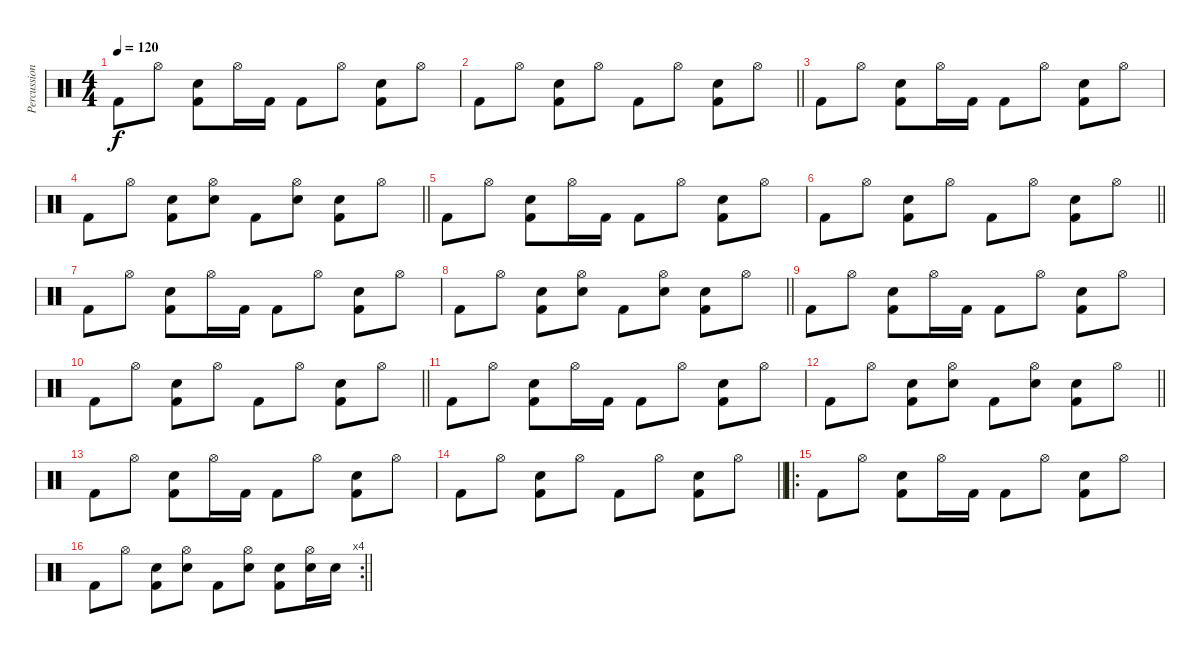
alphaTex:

\track ("Percussion" "Percussion") {instrument percussion}
\staff {score}
\articulation defaults
\ts (4 4)
\tempo 120
\clef neutral
\ks c "Kick (hit) 2".8{dy f} "Hi-Hat (open)".8
("Electric Snare (hit)" "Kick (hit) 2").8 "Hi-Hat (open)".16 "Kick (hit) 2".16 "Kick (hit) 2".8 "Hi-Hat (open)".8 ("Electric Snare (hit)" "Kick (hit) 2").8 "Hi-Hat (open)".8 |
\barLineRight lightlight "Kick (hit) 2".8 "Hi-Hat (open)".8
("Electric Snare (hit)" "Kick (hit) 2").8 "Hi-Hat (open)".8 "Kick (hit) 2".8 "Hi-Hat (open)".8 ("Electric Snare (hit)" "Kick (hit) 2").8 "Hi-Hat (open)".8 |
"Kick (hit) 2".8 "Hi-Hat (open)".8 ("Electric Snare (hit)" "Kick (hit) 2").8 "Hi-Hat (open)".16 "Kick (hit) 2".16 "Kick (hit) 2".8 "Hi-Hat (open)".8 ("Electric Snare (hit)" "Kick (hit) 2").8 "Hi-Hat (open)".8 |
\barLineRight lightlight "Kick (hit) 2".8 "Hi-Hat (open)".8
("Electric Snare (hit)" "Kick (hit) 2").8 ("Hi-Hat (open)" "Electric Snare (hit)").8 "Kick (hit) 2".8 ("Hi-Hat (open)" "Electric Snare (hit)").8 ("Electric Snare (hit)" "Kick (hit) 2").8 "Hi-Hat (open)".8 |
"Kick (hit) 2".8 "Hi-Hat (open)".8 ("Electric Snare (hit)" "Kick (hit) 2").8 "Hi-Hat (open)".16 "Kick (hit) 2".16 "Kick (hit) 2".8 "Hi-Hat (open)".8 ("Electric Snare (hit)" "Kick (hit) 2").8 "Hi-Hat (open)".8 |
\barLineRight lightlight "Kick (hit) 2".8 "Hi-Hat (open)".8
("Electric Snare (hit)" "Kick (hit) 2").8 "Hi-Hat (open)".8 "Kick (hit) 2".8 "Hi-Hat (open)".8 ("Electric Snare (hit)" "Kick (hit) 2").8 "Hi-Hat (open)".8 |
"Kick (hit) 2".8 "Hi-Hat (open)".8 ("Electric Snare (hit)" "Kick (hit) 2").8 "Hi-Hat (open)".16 "Kick (hit) 2".16 "Kick (hit) 2".8 "Hi-Hat (open)".8 ("Electric Snare (hit)" "Kick (hit) 2").8 "Hi-Hat (open)".8 |
\barLineRight lightlight "Kick (hit) 2".8 "Hi-Hat (open)".8
("Electric Snare (hit)" "Kick (hit) 2").8 ("Hi-Hat (open)" "Electric Snare (hit)").8 "Kick (hit) 2".8 ("Hi-Hat (open)" "Electric Snare (hit)").8 ("Electric Snare (hit)" "Kick (hit) 2").8 "Hi-Hat (open)".8 |
"Kick (hit) 2".8 "Hi-Hat (open)".8 ("Electric Snare (hit)" "Kick (hit) 2").8 "Hi-Hat (open)".16 "Kick (hit) 2".16 "Kick (hit) 2".8 "Hi-Hat (open)".8 ("Electric Snare (hit)" "Kick (hit) 2").8 "Hi-Hat (open)".8 |
\barLineRight lightlight "Kick (hit) 2".8 "Hi-Hat (open)".8
("Electric Snare (hit)" "Kick (hit) 2").8 "Hi-Hat (open)".8 "Kick (hit) 2".8 "Hi-Hat (open)".8 ("Electric Snare (hit)" "Kick (hit) 2").8 "Hi-Hat (open)".8 |
"Kick (hit) 2".8 "Hi-Hat (open)".8 ("Electric Snare (hit)" "Kick (hit) 2").8 "Hi-Hat (open)".16 "Kick (hit) 2".16 "Kick (hit) 2".8 "Hi-Hat (open)".8 ("Electric Snare (hit)" "Kick (hit) 2").8 "Hi-Hat (open)".8 |
\barLineRight lightlight "Kick (hit) 2".8 "Hi-Hat (open)".8
("Electric Snare (hit)" "Kick (hit) 2").8 ("Hi-Hat (open)" "Electric Snare (hit)").8 "Kick (hit) 2".8 ("Hi-Hat (open)" "Electric Snare (hit)").8 ("Electric Snare (hit)" "Kick (hit) 2").8 "Hi-Hat (open)".8 |
"Kick (hit) 2".8 "Hi-Hat (open)".8 ("Electric Snare (hit)" "Kick (hit) 2").8 "Hi-Hat (open)".16 "Kick (hit) 2".16 "Kick (hit) 2".8 "Hi-Hat (open)".8 ("Electric Snare (hit)" "Kick (hit) 2").8 "Hi-Hat (open)".8 |
\barLineRight lightlight "Kick (hit) 2".8 "Hi-Hat (open)".8
("Electric Snare (hit)" "Kick (hit) 2").8 "Hi-Hat (open)".8 "Kick (hit) 2".8 "Hi-Hat (open)".8 ("Electric Snare (hit)" "Kick (hit) 2").8 "Hi-Hat (open)".8 |
\ro "Kick (hit) 2".8 "Hi-Hat (open)".8
("Electric Snare (hit)" "Kick (hit) 2").8 "Hi-Hat (open)".16 "Kick (hit) 2".16 "Kick (hit) 2".8 "Hi-Hat (open)".8 ("Electric Snare (hit)" "Kick (hit) 2").8 "Hi-Hat (open)".8 |
\rc 4
\barLineRight lightlight "Kick (hit) 2".8 "Hi-Hat (open)".8
("Electric Snare (hit)" "Kick (hit) 2").8 ("Hi-Hat (open)" "Electric Snare (hit)").8 "Kick (hit) 2".8 ("Hi-Hat (open)" "Electric Snare (hit)").8 ("Electric Snare (hit)" "Kick (hit) 2").8 ("Hi-Hat (open)" "Electric Snare (hit)").16 "Electric Snare (hit)".16
